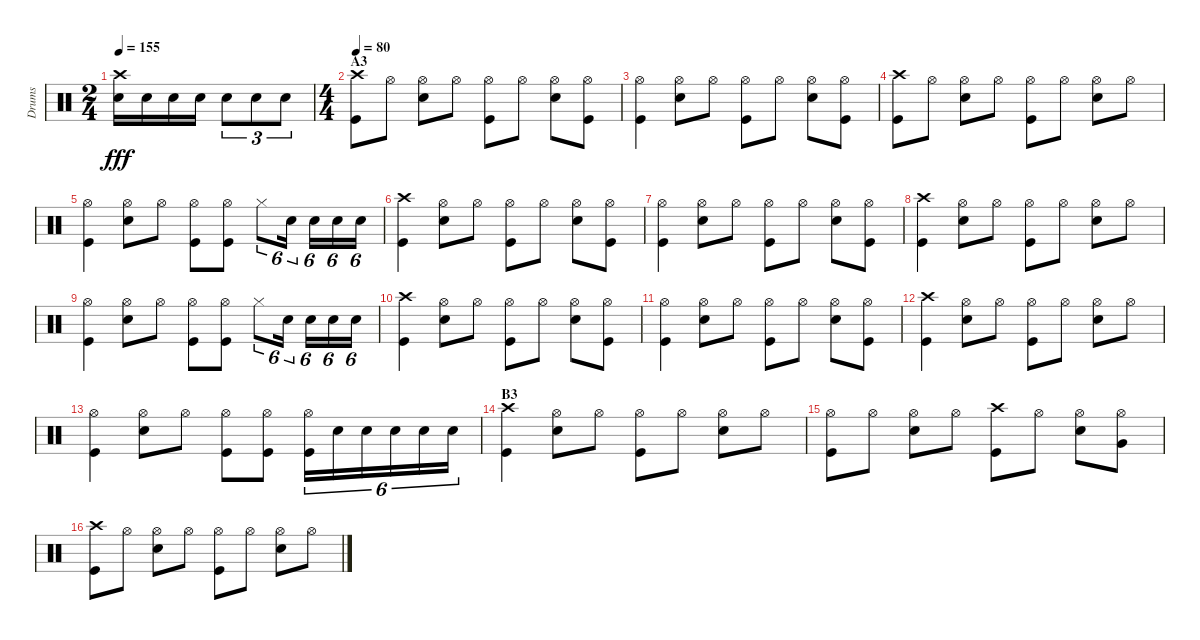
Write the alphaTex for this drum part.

\track ("Drums" "Drums") {instrument percussion}
\staff {score}
\articulation defaults
\ts (2 4)
\tempo 155
\clef neutral
\ks c
("Crash high (hit)" "Snare (hit) 2").16{dy fff} "Snare (hit) 2".16 "Snare (hit) 2".16 "Snare (hit) 2".16 "Snare (hit) 2".8{tu (3 2)} "Snare (hit) 2".8{tu (3 2)} "Snare (hit) 2".8{tu (3 2)} |
\ts (4 4)
\section ("" "A3")
\tempo 80
("Crash high (hit)" "Kick (hit)").8 "Hi-Hat (open)".8 ("Hi-Hat (open)" "Snare (hit) 2").8 "Hi-Hat (open)".8 ("Hi-Hat (open)" "Kick (hit)").8 "Hi-Hat (open)".8 ("Hi-Hat (open)" "Snare (hit) 2").8 ("Hi-Hat (open)" "Kick (hit)").8 |
("Hi-Hat (open)" "Kick (hit)").4 ("Hi-Hat (open)" "Snare (hit) 2").8 "Hi-Hat (open)".8 ("Hi-Hat (open)" "Kick (hit)").8 "Hi-Hat (open)".8 ("Hi-Hat (open)" "Snare (hit) 2").8 ("Hi-Hat (open)" "Kick (hit)").8 |
("Crash high (hit)" "Kick (hit)").8 "Hi-Hat (open)".8 ("Hi-Hat (open)" "Snare (hit) 2").8 "Hi-Hat (open)".8 ("Hi-Hat (open)" "Kick (hit)").8 "Hi-Hat (open)".8 ("Hi-Hat (open)" "Snare (hit) 2").8 "Hi-Hat (open)".8 |
("Hi-Hat (open)" "Kick (hit)").4 ("Hi-Hat (open)" "Snare (hit) 2").8 "Hi-Hat (open)".8 ("Hi-Hat (open)" "Kick (hit)").8 ("Hi-Hat (open)" "Kick (hit)").8 "Hi-Hat (closed)".8{tu (6 4)} "Snare (hit) 2".16{tu (6 4)} "Snare (hit) 2".16{tu (6 4)} "Snare (hit) 2".16{tu (6 4)} "Snare (hit) 2".16{tu (6 4)} |
("Crash high (hit)" "Kick (hit)").4 ("Hi-Hat (open)" "Snare (hit) 2").8 "Hi-Hat (open)".8 ("Hi-Hat (open)" "Kick (hit)").8 "Hi-Hat (open)".8 ("Hi-Hat (open)" "Snare (hit) 2").8 ("Hi-Hat (open)" "Kick (hit)").8 |
("Hi-Hat (open)" "Kick (hit)").4 ("Hi-Hat (open)" "Snare (hit) 2").8 "Hi-Hat (open)".8 ("Hi-Hat (open)" "Kick (hit)").8 "Hi-Hat (open)".8 ("Hi-Hat (open)" "Snare (hit) 2").8 ("Hi-Hat (open)" "Kick (hit)").8 |
("Crash high (hit)" "Kick (hit)").4 ("Hi-Hat (open)" "Snare (hit) 2").8 "Hi-Hat (open)".8 ("Hi-Hat (open)" "Kick (hit)").8 "Hi-Hat (open)".8 ("Hi-Hat (open)" "Snare (hit) 2").8 "Hi-Hat (open)".8 |
("Hi-Hat (open)" "Kick (hit)").4 ("Hi-Hat (open)" "Snare (hit) 2").8 "Hi-Hat (open)".8 ("Hi-Hat (open)" "Kick (hit)").8 ("Hi-Hat (open)" "Kick (hit)").8 "Hi-Hat (closed)".8{tu (6 4)} "Snare (hit) 2".16{tu (6 4)} "Snare (hit) 2".16{tu (6 4)} "Snare (hit) 2".16{tu (6 4)} "Snare (hit) 2".16{tu (6 4)} |
("Crash high (hit)" "Kick (hit)").4 ("Hi-Hat (open)" "Snare (hit) 2").8 "Hi-Hat (open)".8 ("Hi-Hat (open)" "Kick (hit)").8 "Hi-Hat (open)".8 ("Hi-Hat (open)" "Snare (hit) 2").8 ("Hi-Hat (open)" "Kick (hit)").8 |
("Hi-Hat (open)" "Kick (hit)").4 ("Hi-Hat (open)" "Snare (hit) 2").8 "Hi-Hat (open)".8 ("Hi-Hat (open)" "Kick (hit)").8 "Hi-Hat (open)".8 ("Hi-Hat (open)" "Snare (hit) 2").8 ("Hi-Hat (open)" "Kick (hit)").8 |
("Crash high (hit)" "Kick (hit)").4 ("Hi-Hat (open)" "Snare (hit) 2").8 "Hi-Hat (open)".8 ("Hi-Hat (open)" "Kick (hit)").8 "Hi-Hat (open)".8 ("Hi-Hat (open)" "Snare (hit) 2").8 "Hi-Hat (open)".8 |
("Hi-Hat (open)" "Kick (hit)").4 ("Hi-Hat (open)" "Snare (hit) 2").8 "Hi-Hat (open)".8 ("Hi-Hat (open)" "Kick (hit)").8 ("Hi-Hat (open)" "Kick (hit)").8 ("Hi-Hat (open)" "Kick (hit)").16{tu (6 4)} "Snare (hit) 2".16{tu (6 4)} "Snare (hit) 2".16{tu (6 4)} "Snare (hit) 2".16{tu (6 4)} "Snare (hit) 2".16{tu (6 4)} "Snare (hit) 2".16{tu (6 4)} |
\section ("" "B3")
("Crash high (hit)" "Kick (hit)").4 ("Hi-Hat (open)" "Snare (hit) 2").8 "Hi-Hat (open)".8 ("Hi-Hat (open)" "Kick (hit)").8 "Hi-Hat (open)".8 ("Hi-Hat (open)" "Snare (hit) 2").8 "Hi-Hat (open)".8 |
("Hi-Hat (open)" "Kick (hit)").8 "Hi-Hat (open)".8 ("Hi-Hat (open)" "Snare (hit) 2").8 "Hi-Hat (open)".8 ("Crash high (hit)" "Kick (hit)").8 "Hi-Hat (open)".8 ("Hi-Hat (open)" "Snare (hit) 2").8 ("Hi-Hat (open)" "Very Low Tom (hit)").8 |
("Crash high (hit)" "Kick (hit)").8 "Hi-Hat (open)".8 ("Hi-Hat (open)" "Snare (hit) 2").8 "Hi-Hat (open)".8 ("Hi-Hat (open)" "Kick (hit)").8 "Hi-Hat (open)".8 ("Hi-Hat (open)" "Snare (hit) 2").8 "Hi-Hat (open)".8
